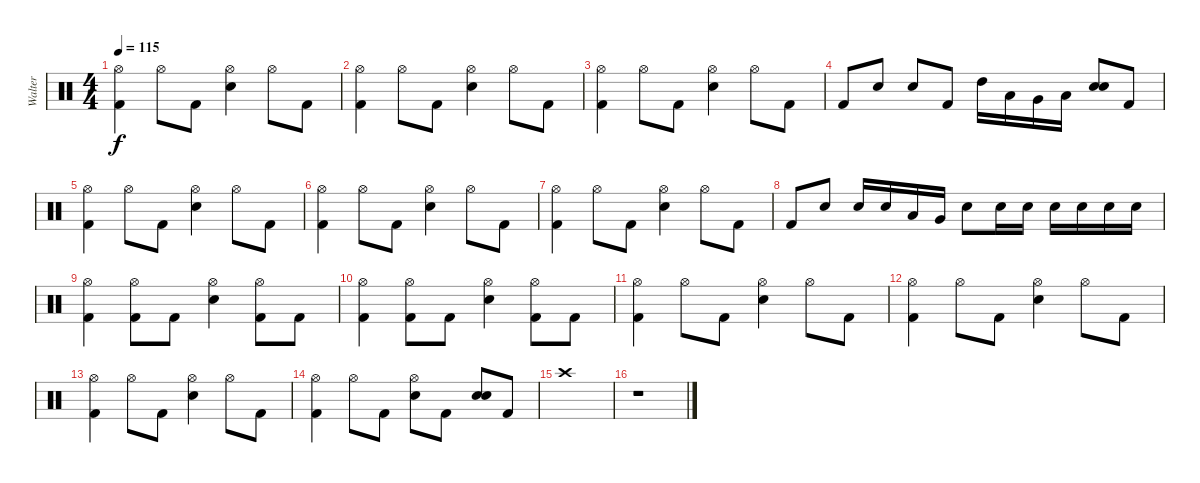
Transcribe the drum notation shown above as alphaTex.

\track ("Walter" "Walter") {instrument percussion}
\staff {score}
\articulation defaults
\ts (4 4)
\tempo 115
\clef neutral
\ks c
("Kick (hit) 2" "Hi-Hat (open)").4{dy f} "Hi-Hat (open)".8 "Kick (hit) 2".8 ("Snare (hit) 2" "Hi-Hat (open)").4 "Hi-Hat (open)".8 "Kick (hit) 2".8 |
("Kick (hit) 2" "Hi-Hat (open)").4 "Hi-Hat (open)".8 "Kick (hit) 2".8 ("Snare (hit) 2" "Hi-Hat (open)").4 "Hi-Hat (open)".8 "Kick (hit) 2".8 |
("Kick (hit) 2" "Hi-Hat (open)").4 "Hi-Hat (open)".8 "Kick (hit) 2".8 ("Snare (hit) 2" "Hi-Hat (open)").4 "Hi-Hat (open)".8 "Kick (hit) 2".8 |
"Kick (hit) 2".8 "Snare (hit) 2".8 "Snare (hit) 2".8 "Kick (hit) 2".8 "High Tom (hit)".16 "Low Tom (hit)".16 "Very Low Tom (hit)".16 "Low Floor Tom (hit)".16 ("Snare (hit) 2" "Snare (hit) 2").8{bd 480} "Kick (hit) 2".8 |
("Kick (hit) 2" "Hi-Hat (open)").4 "Hi-Hat (open)".8 "Kick (hit) 2".8 ("Snare (hit) 2" "Hi-Hat (open)").4 "Hi-Hat (open)".8 "Kick (hit) 2".8 |
("Kick (hit) 2" "Hi-Hat (open)").4 "Hi-Hat (open)".8 "Kick (hit) 2".8 ("Snare (hit) 2" "Hi-Hat (open)").4 "Hi-Hat (open)".8 "Kick (hit) 2".8 |
("Kick (hit) 2" "Hi-Hat (open)").4 "Hi-Hat (open)".8 "Kick (hit) 2".8 ("Snare (hit) 2" "Hi-Hat (open)").4 "Hi-Hat (open)".8 "Kick (hit) 2".8 |
"Kick (hit) 2".8 "Snare (hit) 2".8 "Snare (hit) 2".16 "Snare (hit) 2".16 "Low Tom (hit)".16 "Very Low Tom (hit)".16 "Snare (hit) 2".8 "Snare (hit) 2".16 "Snare (hit) 2".16 "Snare (hit) 2".16 "Snare (hit) 2".16 "Snare (hit) 2".16 "Snare (hit) 2".16 |
("Kick (hit) 2" "Hi-Hat (open)").4 ("Kick (hit) 2" "Hi-Hat (open)").8 "Kick (hit) 2".8 ("Snare (hit) 2" "Hi-Hat (open)").4 ("Kick (hit) 2" "Hi-Hat (open)").8 "Kick (hit) 2".8 |
("Kick (hit) 2" "Hi-Hat (open)").4 ("Kick (hit) 2" "Hi-Hat (open)").8 "Kick (hit) 2".8 ("Snare (hit) 2" "Hi-Hat (open)").4 ("Kick (hit) 2" "Hi-Hat (open)").8 "Kick (hit) 2".8 |
("Kick (hit) 2" "Hi-Hat (open)").4 "Hi-Hat (open)".8 "Kick (hit) 2".8 ("Snare (hit) 2" "Hi-Hat (open)").4 "Hi-Hat (open)".8 "Kick (hit) 2".8 |
("Kick (hit) 2" "Hi-Hat (open)").4 "Hi-Hat (open)".8 "Kick (hit) 2".8 ("Snare (hit) 2" "Hi-Hat (open)").4 "Hi-Hat (open)".8 "Kick (hit) 2".8 |
("Kick (hit) 2" "Hi-Hat (open)").4 "Hi-Hat (open)".8 "Kick (hit) 2".8 ("Snare (hit) 2" "Hi-Hat (open)").4 "Hi-Hat (open)".8 "Kick (hit) 2".8 |
("Kick (hit) 2" "Hi-Hat (open)").4 "Hi-Hat (open)".8 "Kick (hit) 2".8 ("Snare (hit) 2" "Hi-Hat (open)").8 "Kick (hit) 2".8 ("Snare (hit) 2" "Snare (hit) 2").8{bd 480} "Kick (hit) 2".8 |
"Crash high (hit)".1 |
r.1
